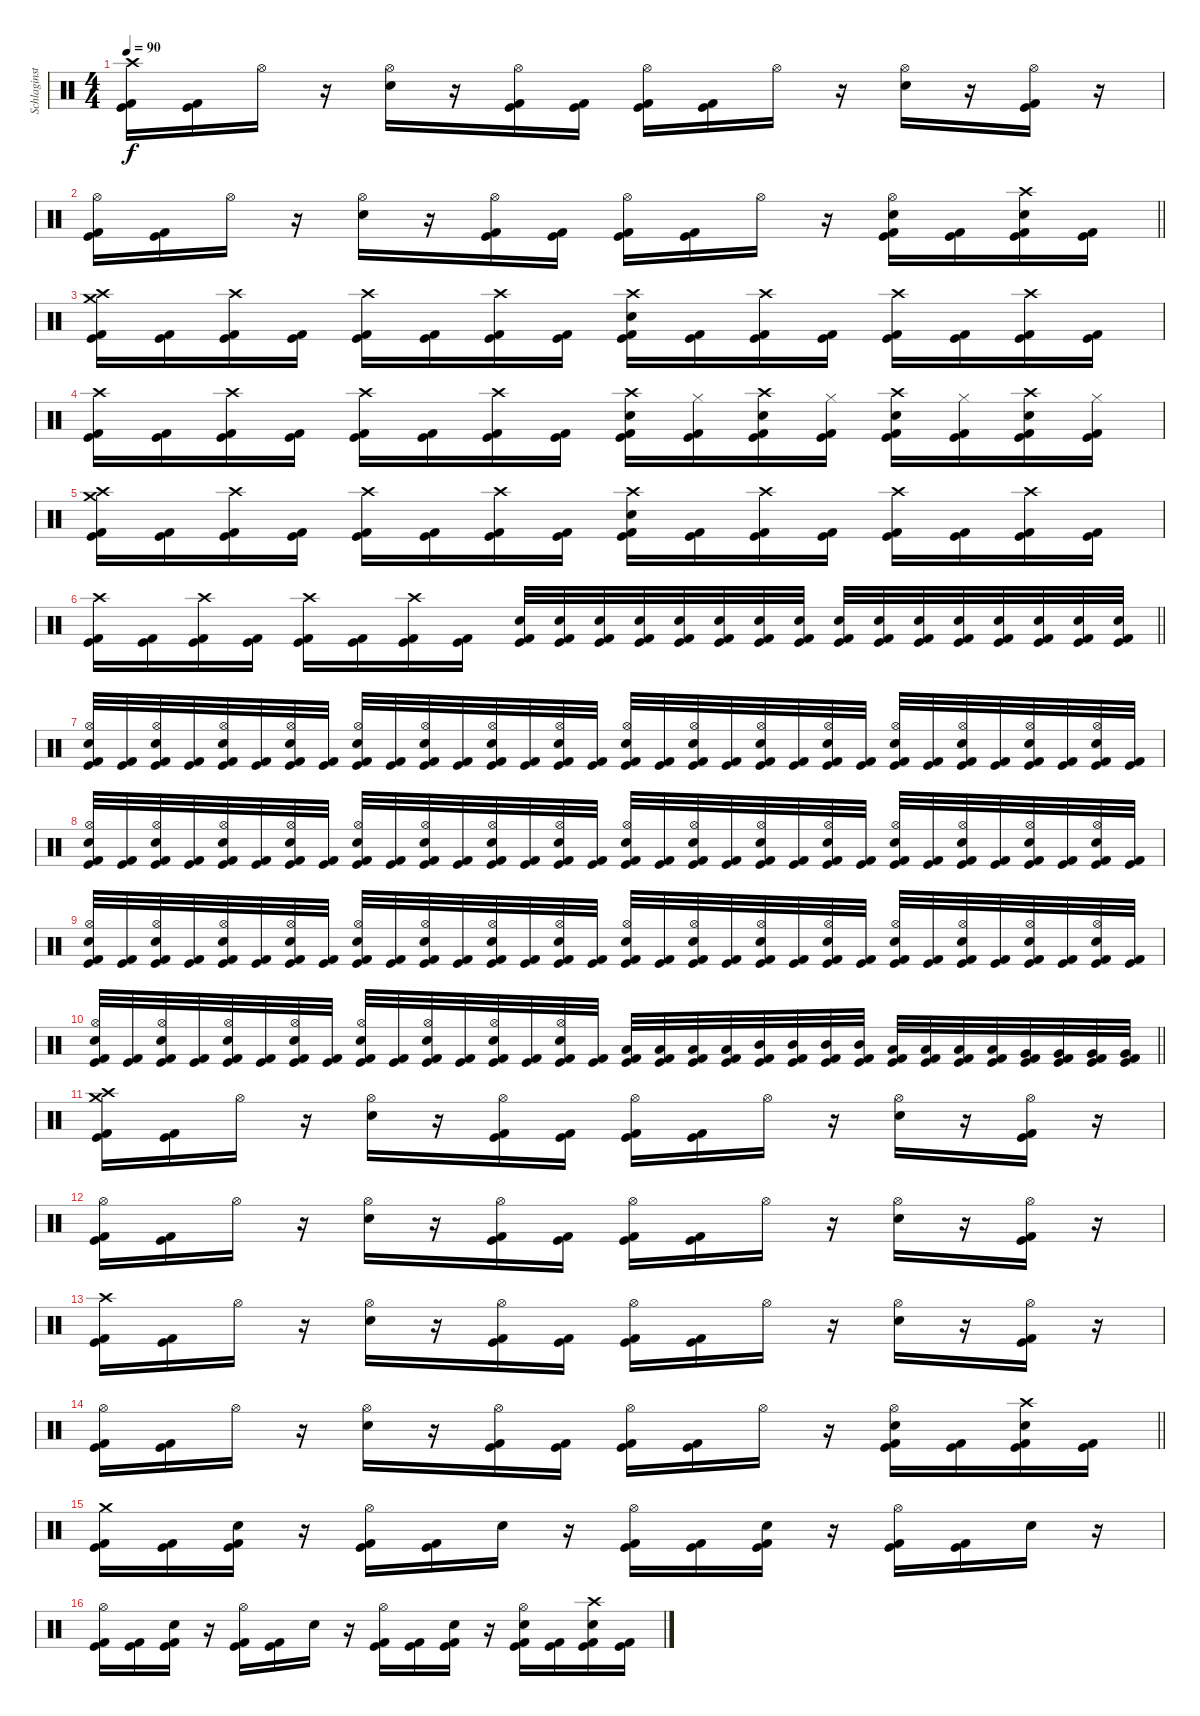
\track ("Schlaginstrumente - Auswahl" "Schlaginst") {instrument percussion}
\staff {score}
\articulation defaults
\ts (4 4)
\tempo 90
\clef neutral
\ks c
("Crash high (hit)" "Kick (hit)" "Kick (hit) 2").16{dy f} ("Kick (hit)" "Kick (hit) 2").16 "Hi-Hat (open)".16 r.16 ("Hi-Hat (open)" "Electric Snare (hit)").16 r.16 ("Hi-Hat (open)" "Kick (hit)" "Kick (hit) 2").16 ("Kick (hit)" "Kick (hit) 2").16 ("Hi-Hat (open)" "Kick (hit)" "Kick (hit) 2").16 ("Kick (hit)" "Kick (hit) 2").16 "Hi-Hat (open)".16 r.16 ("Hi-Hat (open)" "Electric Snare (hit)").16 r.16 ("Hi-Hat (open)" "Kick (hit)" "Kick (hit) 2").16 r.16 |
\barLineRight lightlight
("Hi-Hat (open)" "Kick (hit)" "Kick (hit) 2").16 ("Kick (hit)" "Kick (hit) 2").16 "Hi-Hat (open)".16 r.16 ("Hi-Hat (open)" "Electric Snare (hit)").16 r.16 ("Hi-Hat (open)" "Kick (hit)" "Kick (hit) 2").16 ("Kick (hit)" "Kick (hit) 2").16 ("Hi-Hat (open)" "Kick (hit)" "Kick (hit) 2").16 ("Kick (hit)" "Kick (hit) 2").16 "Hi-Hat (open)".16 r.16 ("Hi-Hat (open)" "Electric Snare (hit)" "Kick (hit)" "Kick (hit) 2").16 ("Kick (hit)" "Kick (hit) 2").16 ("Crash high (hit)" "Electric Snare (hit)" "Kick (hit)" "Kick (hit) 2").16 ("Kick (hit)" "Kick (hit) 2").16 |
("Crash high (hit)" "Crash medium (hit)" "Kick (hit)" "Kick (hit) 2").16 ("Kick (hit)" "Kick (hit) 2").16 ("Crash high (hit)" "Kick (hit)" "Kick (hit) 2").16 ("Kick (hit)" "Kick (hit) 2").16 ("Crash high (hit)" "Kick (hit)" "Kick (hit) 2").16 ("Kick (hit)" "Kick (hit) 2").16 ("Crash high (hit)" "Kick (hit)" "Kick (hit) 2").16 ("Kick (hit)" "Kick (hit) 2").16 ("Crash high (hit)" "Electric Snare (hit)" "Kick (hit)" "Kick (hit) 2").16 ("Kick (hit)" "Kick (hit) 2").16 ("Crash high (hit)" "Kick (hit)" "Kick (hit) 2").16 ("Kick (hit)" "Kick (hit) 2").16 ("Crash high (hit)" "Kick (hit)" "Kick (hit) 2").16 ("Kick (hit)" "Kick (hit) 2").16 ("Crash high (hit)" "Kick (hit)" "Kick (hit) 2").16 ("Kick (hit)" "Kick (hit) 2").16 |
("Crash high (hit)" "Kick (hit)" "Kick (hit) 2").16 ("Kick (hit)" "Kick (hit) 2").16 ("Crash high (hit)" "Kick (hit)" "Kick (hit) 2").16 ("Kick (hit)" "Kick (hit) 2").16 ("Crash high (hit)" "Kick (hit)" "Kick (hit) 2").16 ("Kick (hit)" "Kick (hit) 2").16 ("Crash high (hit)" "Kick (hit)" "Kick (hit) 2").16 ("Kick (hit)" "Kick (hit) 2").16 ("Crash high (hit)" "Electric Snare (hit)" "Kick (hit)" "Kick (hit) 2").16 ("Hi-Hat (closed)" "Kick (hit)" "Kick (hit) 2").16 ("Crash high (hit)" "Electric Snare (hit)" "Kick (hit)" "Kick (hit) 2").16 ("Hi-Hat (closed)" "Kick (hit)" "Kick (hit) 2").16 ("Crash high (hit)" "Electric Snare (hit)" "Kick (hit)" "Kick (hit) 2").16 ("Hi-Hat (closed)" "Kick (hit)" "Kick (hit) 2").16 ("Crash high (hit)" "Electric Snare (hit)" "Kick (hit)" "Kick (hit) 2").16 ("Hi-Hat (closed)" "Kick (hit)" "Kick (hit) 2").16 |
("Crash high (hit)" "Crash medium (hit)" "Kick (hit)" "Kick (hit) 2").16 ("Kick (hit)" "Kick (hit) 2").16 ("Crash high (hit)" "Kick (hit)" "Kick (hit) 2").16 ("Kick (hit)" "Kick (hit) 2").16 ("Crash high (hit)" "Kick (hit)" "Kick (hit) 2").16 ("Kick (hit)" "Kick (hit) 2").16 ("Crash high (hit)" "Kick (hit)" "Kick (hit) 2").16 ("Kick (hit)" "Kick (hit) 2").16 ("Crash high (hit)" "Electric Snare (hit)" "Kick (hit)" "Kick (hit) 2").16 ("Kick (hit)" "Kick (hit) 2").16 ("Crash high (hit)" "Kick (hit)" "Kick (hit) 2").16 ("Kick (hit)" "Kick (hit) 2").16 ("Crash high (hit)" "Kick (hit)" "Kick (hit) 2").16 ("Kick (hit)" "Kick (hit) 2").16 ("Crash high (hit)" "Kick (hit)" "Kick (hit) 2").16 ("Kick (hit)" "Kick (hit) 2").16 |
\barLineRight lightlight
("Crash high (hit)" "Kick (hit)" "Kick (hit) 2").16 ("Kick (hit)" "Kick (hit) 2").16 ("Crash high (hit)" "Kick (hit)" "Kick (hit) 2").16 ("Kick (hit)" "Kick (hit) 2").16 ("Crash high (hit)" "Kick (hit)" "Kick (hit) 2").16 ("Kick (hit)" "Kick (hit) 2").16 ("Crash high (hit)" "Kick (hit)" "Kick (hit) 2").16 ("Kick (hit)" "Kick (hit) 2").16 ("Electric Snare (hit)" "Kick (hit)" "Kick (hit) 2").32 ("Electric Snare (hit)" "Kick (hit)" "Kick (hit) 2").32 ("Electric Snare (hit)" "Kick (hit)" "Kick (hit) 2").32 ("Electric Snare (hit)" "Kick (hit)" "Kick (hit) 2").32 ("Electric Snare (hit)" "Kick (hit)" "Kick (hit) 2").32 ("Electric Snare (hit)" "Kick (hit)" "Kick (hit) 2").32 ("Electric Snare (hit)" "Kick (hit)" "Kick (hit) 2").32 ("Electric Snare (hit)" "Kick (hit)" "Kick (hit) 2").32 ("Electric Snare (hit)" "Kick (hit)" "Kick (hit) 2").32 ("Electric Snare (hit)" "Kick (hit)" "Kick (hit) 2").32 ("Electric Snare (hit)" "Kick (hit)" "Kick (hit) 2").32 ("Electric Snare (hit)" "Kick (hit)" "Kick (hit) 2").32 ("Electric Snare (hit)" "Kick (hit)" "Kick (hit) 2").32 ("Electric Snare (hit)" "Kick (hit)" "Kick (hit) 2").32 ("Electric Snare (hit)" "Kick (hit)" "Kick (hit) 2").32 ("Electric Snare (hit)" "Kick (hit)" "Kick (hit) 2").32 |
("Hi-Hat (open)" "Electric Snare (hit)" "Kick (hit)" "Kick (hit) 2").32 ("Kick (hit)" "Kick (hit) 2").32 ("Hi-Hat (open)" "Electric Snare (hit)" "Kick (hit)" "Kick (hit) 2").32 ("Kick (hit)" "Kick (hit) 2").32 ("Hi-Hat (open)" "Electric Snare (hit)" "Kick (hit)" "Kick (hit) 2").32 ("Kick (hit)" "Kick (hit) 2").32 ("Hi-Hat (open)" "Electric Snare (hit)" "Kick (hit)" "Kick (hit) 2").32 ("Kick (hit)" "Kick (hit) 2").32 ("Hi-Hat (open)" "Electric Snare (hit)" "Kick (hit)" "Kick (hit) 2").32 ("Kick (hit)" "Kick (hit) 2").32 ("Hi-Hat (open)" "Electric Snare (hit)" "Kick (hit)" "Kick (hit) 2").32 ("Kick (hit)" "Kick (hit) 2").32 ("Hi-Hat (open)" "Electric Snare (hit)" "Kick (hit)" "Kick (hit) 2").32 ("Kick (hit)" "Kick (hit) 2").32 ("Hi-Hat (open)" "Electric Snare (hit)" "Kick (hit)" "Kick (hit) 2").32 ("Kick (hit)" "Kick (hit) 2").32 ("Hi-Hat (open)" "Electric Snare (hit)" "Kick (hit)" "Kick (hit) 2").32 ("Kick (hit)" "Kick (hit) 2").32 ("Hi-Hat (open)" "Electric Snare (hit)" "Kick (hit)" "Kick (hit) 2").32 ("Kick (hit)" "Kick (hit) 2").32 ("Hi-Hat (open)" "Electric Snare (hit)" "Kick (hit)" "Kick (hit) 2").32 ("Kick (hit)" "Kick (hit) 2").32 ("Hi-Hat (open)" "Electric Snare (hit)" "Kick (hit)" "Kick (hit) 2").32 ("Kick (hit)" "Kick (hit) 2").32 ("Hi-Hat (open)" "Electric Snare (hit)" "Kick (hit)" "Kick (hit) 2").32 ("Kick (hit)" "Kick (hit) 2").32 ("Hi-Hat (open)" "Electric Snare (hit)" "Kick (hit)" "Kick (hit) 2").32 ("Kick (hit)" "Kick (hit) 2").32 ("Hi-Hat (open)" "Electric Snare (hit)" "Kick (hit)" "Kick (hit) 2").32 ("Kick (hit)" "Kick (hit) 2").32 ("Hi-Hat (open)" "Electric Snare (hit)" "Kick (hit)" "Kick (hit) 2").32 ("Kick (hit)" "Kick (hit) 2").32 |
("Hi-Hat (open)" "Electric Snare (hit)" "Kick (hit)" "Kick (hit) 2").32 ("Kick (hit)" "Kick (hit) 2").32 ("Hi-Hat (open)" "Electric Snare (hit)" "Kick (hit)" "Kick (hit) 2").32 ("Kick (hit)" "Kick (hit) 2").32 ("Hi-Hat (open)" "Electric Snare (hit)" "Kick (hit)" "Kick (hit) 2").32 ("Kick (hit)" "Kick (hit) 2").32 ("Hi-Hat (open)" "Electric Snare (hit)" "Kick (hit)" "Kick (hit) 2").32 ("Kick (hit)" "Kick (hit) 2").32 ("Hi-Hat (open)" "Electric Snare (hit)" "Kick (hit)" "Kick (hit) 2").32 ("Kick (hit)" "Kick (hit) 2").32 ("Hi-Hat (open)" "Electric Snare (hit)" "Kick (hit)" "Kick (hit) 2").32 ("Kick (hit)" "Kick (hit) 2").32 ("Hi-Hat (open)" "Electric Snare (hit)" "Kick (hit)" "Kick (hit) 2").32 ("Kick (hit)" "Kick (hit) 2").32 ("Hi-Hat (open)" "Electric Snare (hit)" "Kick (hit)" "Kick (hit) 2").32 ("Kick (hit)" "Kick (hit) 2").32 ("Hi-Hat (open)" "Electric Snare (hit)" "Kick (hit)" "Kick (hit) 2").32 ("Kick (hit)" "Kick (hit) 2").32 ("Hi-Hat (open)" "Electric Snare (hit)" "Kick (hit)" "Kick (hit) 2").32 ("Kick (hit)" "Kick (hit) 2").32 ("Hi-Hat (open)" "Electric Snare (hit)" "Kick (hit)" "Kick (hit) 2").32 ("Kick (hit)" "Kick (hit) 2").32 ("Hi-Hat (open)" "Electric Snare (hit)" "Kick (hit)" "Kick (hit) 2").32 ("Kick (hit)" "Kick (hit) 2").32 ("Hi-Hat (open)" "Electric Snare (hit)" "Kick (hit)" "Kick (hit) 2").32 ("Kick (hit)" "Kick (hit) 2").32 ("Hi-Hat (open)" "Electric Snare (hit)" "Kick (hit)" "Kick (hit) 2").32 ("Kick (hit)" "Kick (hit) 2").32 ("Hi-Hat (open)" "Electric Snare (hit)" "Kick (hit)" "Kick (hit) 2").32 ("Kick (hit)" "Kick (hit) 2").32 ("Hi-Hat (open)" "Electric Snare (hit)" "Kick (hit)" "Kick (hit) 2").32 ("Kick (hit)" "Kick (hit) 2").32 |
("Hi-Hat (open)" "Electric Snare (hit)" "Kick (hit)" "Kick (hit) 2").32 ("Kick (hit)" "Kick (hit) 2").32 ("Hi-Hat (open)" "Electric Snare (hit)" "Kick (hit)" "Kick (hit) 2").32 ("Kick (hit)" "Kick (hit) 2").32 ("Hi-Hat (open)" "Electric Snare (hit)" "Kick (hit)" "Kick (hit) 2").32 ("Kick (hit)" "Kick (hit) 2").32 ("Hi-Hat (open)" "Electric Snare (hit)" "Kick (hit)" "Kick (hit) 2").32 ("Kick (hit)" "Kick (hit) 2").32 ("Hi-Hat (open)" "Electric Snare (hit)" "Kick (hit)" "Kick (hit) 2").32 ("Kick (hit)" "Kick (hit) 2").32 ("Hi-Hat (open)" "Electric Snare (hit)" "Kick (hit)" "Kick (hit) 2").32 ("Kick (hit)" "Kick (hit) 2").32 ("Hi-Hat (open)" "Electric Snare (hit)" "Kick (hit)" "Kick (hit) 2").32 ("Kick (hit)" "Kick (hit) 2").32 ("Hi-Hat (open)" "Electric Snare (hit)" "Kick (hit)" "Kick (hit) 2").32 ("Kick (hit)" "Kick (hit) 2").32 ("Hi-Hat (open)" "Electric Snare (hit)" "Kick (hit)" "Kick (hit) 2").32 ("Kick (hit)" "Kick (hit) 2").32 ("Hi-Hat (open)" "Electric Snare (hit)" "Kick (hit)" "Kick (hit) 2").32 ("Kick (hit)" "Kick (hit) 2").32 ("Hi-Hat (open)" "Electric Snare (hit)" "Kick (hit)" "Kick (hit) 2").32 ("Kick (hit)" "Kick (hit) 2").32 ("Hi-Hat (open)" "Electric Snare (hit)" "Kick (hit)" "Kick (hit) 2").32 ("Kick (hit)" "Kick (hit) 2").32 ("Hi-Hat (open)" "Electric Snare (hit)" "Kick (hit)" "Kick (hit) 2").32 ("Kick (hit)" "Kick (hit) 2").32 ("Hi-Hat (open)" "Electric Snare (hit)" "Kick (hit)" "Kick (hit) 2").32 ("Kick (hit)" "Kick (hit) 2").32 ("Hi-Hat (open)" "Electric Snare (hit)" "Kick (hit)" "Kick (hit) 2").32 ("Kick (hit)" "Kick (hit) 2").32 ("Hi-Hat (open)" "Electric Snare (hit)" "Kick (hit)" "Kick (hit) 2").32 ("Kick (hit)" "Kick (hit) 2").32 |
\barLineRight lightlight
("Hi-Hat (open)" "Electric Snare (hit)" "Kick (hit)" "Kick (hit) 2").32 ("Kick (hit)" "Kick (hit) 2").32 ("Hi-Hat (open)" "Electric Snare (hit)" "Kick (hit)" "Kick (hit) 2").32 ("Kick (hit)" "Kick (hit) 2").32 ("Hi-Hat (open)" "Electric Snare (hit)" "Kick (hit)" "Kick (hit) 2").32 ("Kick (hit)" "Kick (hit) 2").32 ("Hi-Hat (open)" "Electric Snare (hit)" "Kick (hit)" "Kick (hit) 2").32 ("Kick (hit)" "Kick (hit) 2").32 ("Hi-Hat (open)" "Electric Snare (hit)" "Kick (hit)" "Kick (hit) 2").32 ("Kick (hit)" "Kick (hit) 2").32 ("Hi-Hat (open)" "Electric Snare (hit)" "Kick (hit)" "Kick (hit) 2").32 ("Kick (hit)" "Kick (hit) 2").32 ("Hi-Hat (open)" "Electric Snare (hit)" "Kick (hit)" "Kick (hit) 2").32 ("Kick (hit)" "Kick (hit) 2").32 ("Hi-Hat (open)" "Electric Snare (hit)" "Kick (hit)" "Kick (hit) 2").32 ("Kick (hit)" "Kick (hit) 2").32 ("Low Tom (hit)" "Kick (hit)" "Kick (hit) 2").32 ("Low Tom (hit)" "Kick (hit)" "Kick (hit) 2").32 ("Low Tom (hit)" "Kick (hit)" "Kick (hit) 2").32 ("Low Tom (hit)" "Kick (hit)" "Kick (hit) 2").32 ("Mid Tom (hit)" "Kick (hit)" "Kick (hit) 2").32 ("Mid Tom (hit)" "Kick (hit)" "Kick (hit) 2").32 ("Mid Tom (hit)" "Kick (hit)" "Kick (hit) 2").32 ("Mid Tom (hit)" "Kick (hit)" "Kick (hit) 2").32 ("Low Floor Tom (hit)" "Kick (hit)" "Kick (hit) 2").32 ("Low Floor Tom (hit)" "Kick (hit)" "Kick (hit) 2").32 ("Low Floor Tom (hit)" "Kick (hit)" "Kick (hit) 2").32 ("Low Floor Tom (hit)" "Kick (hit)" "Kick (hit) 2").32 ("Very Low Tom (hit)" "Kick (hit)" "Kick (hit) 2").32 ("Very Low Tom (hit)" "Kick (hit)" "Kick (hit) 2").32 ("Very Low Tom (hit)" "Kick (hit)" "Kick (hit) 2").32 ("Very Low Tom (hit)" "Kick (hit)" "Kick (hit) 2").32 |
("Crash high (hit)" "Crash medium (hit)" "Kick (hit)" "Kick (hit) 2").16 ("Kick (hit)" "Kick (hit) 2").16 "Hi-Hat (open)".16 r.16 ("Hi-Hat (open)" "Electric Snare (hit)").16 r.16 ("Hi-Hat (open)" "Kick (hit)" "Kick (hit) 2").16 ("Kick (hit)" "Kick (hit) 2").16 ("Hi-Hat (open)" "Kick (hit)" "Kick (hit) 2").16 ("Kick (hit)" "Kick (hit) 2").16 "Hi-Hat (open)".16 r.16 ("Hi-Hat (open)" "Electric Snare (hit)").16 r.16 ("Hi-Hat (open)" "Kick (hit)" "Kick (hit) 2").16 r.16 |
("Hi-Hat (open)" "Kick (hit)" "Kick (hit) 2").16 ("Kick (hit)" "Kick (hit) 2").16 "Hi-Hat (open)".16 r.16 ("Hi-Hat (open)" "Electric Snare (hit)").16 r.16 ("Hi-Hat (open)" "Kick (hit)" "Kick (hit) 2").16 ("Kick (hit)" "Kick (hit) 2").16 ("Hi-Hat (open)" "Kick (hit)" "Kick (hit) 2").16 ("Kick (hit)" "Kick (hit) 2").16 "Hi-Hat (open)".16 r.16 ("Hi-Hat (open)" "Electric Snare (hit)").16 r.16 ("Hi-Hat (open)" "Kick (hit)" "Kick (hit) 2").16 r.16 |
("Crash high (hit)" "Kick (hit)" "Kick (hit) 2").16 ("Kick (hit)" "Kick (hit) 2").16 "Hi-Hat (open)".16 r.16 ("Hi-Hat (open)" "Electric Snare (hit)").16 r.16 ("Hi-Hat (open)" "Kick (hit)" "Kick (hit) 2").16 ("Kick (hit)" "Kick (hit) 2").16 ("Hi-Hat (open)" "Kick (hit)" "Kick (hit) 2").16 ("Kick (hit)" "Kick (hit) 2").16 "Hi-Hat (open)".16 r.16 ("Hi-Hat (open)" "Electric Snare (hit)").16 r.16 ("Hi-Hat (open)" "Kick (hit)" "Kick (hit) 2").16 r.16 |
\barLineRight lightlight
("Hi-Hat (open)" "Kick (hit)" "Kick (hit) 2").16 ("Kick (hit)" "Kick (hit) 2").16 "Hi-Hat (open)".16 r.16 ("Hi-Hat (open)" "Electric Snare (hit)").16 r.16 ("Hi-Hat (open)" "Kick (hit)" "Kick (hit) 2").16 ("Kick (hit)" "Kick (hit) 2").16 ("Hi-Hat (open)" "Kick (hit)" "Kick (hit) 2").16 ("Kick (hit)" "Kick (hit) 2").16 "Hi-Hat (open)".16 r.16 ("Hi-Hat (open)" "Electric Snare (hit)" "Kick (hit)" "Kick (hit) 2").16 ("Kick (hit)" "Kick (hit) 2").16 ("Crash high (hit)" "Electric Snare (hit)" "Kick (hit)" "Kick (hit) 2").16 ("Kick (hit)" "Kick (hit) 2").16 |
("Crash medium (hit)" "Kick (hit)" "Kick (hit) 2").16 ("Kick (hit)" "Kick (hit) 2").16 ("Electric Snare (hit)" "Kick (hit)" "Kick (hit) 2").16 r.16 ("Hi-Hat (open)" "Kick (hit)" "Kick (hit) 2").16 ("Kick (hit)" "Kick (hit) 2").16 "Electric Snare (hit)".16 r.16 ("Hi-Hat (open)" "Kick (hit)" "Kick (hit) 2").16 ("Kick (hit)" "Kick (hit) 2").16 ("Electric Snare (hit)" "Kick (hit)" "Kick (hit) 2").16 r.16 ("Hi-Hat (open)" "Kick (hit)" "Kick (hit) 2").16 ("Kick (hit)" "Kick (hit) 2").16 "Electric Snare (hit)".16 r.16 |
("Hi-Hat (open)" "Kick (hit)" "Kick (hit) 2").16 ("Kick (hit)" "Kick (hit) 2").16 ("Electric Snare (hit)" "Kick (hit)" "Kick (hit) 2").16 r.16 ("Hi-Hat (open)" "Kick (hit)" "Kick (hit) 2").16 ("Kick (hit)" "Kick (hit) 2").16 "Electric Snare (hit)".16 r.16 ("Hi-Hat (open)" "Kick (hit)" "Kick (hit) 2").16 ("Kick (hit)" "Kick (hit) 2").16 ("Electric Snare (hit)" "Kick (hit)" "Kick (hit) 2").16 r.16 ("Hi-Hat (open)" "Electric Snare (hit)" "Kick (hit)" "Kick (hit) 2").16 ("Kick (hit)" "Kick (hit) 2").16 ("Crash high (hit)" "Electric Snare (hit)" "Kick (hit)" "Kick (hit) 2").16 ("Kick (hit)" "Kick (hit) 2").16
